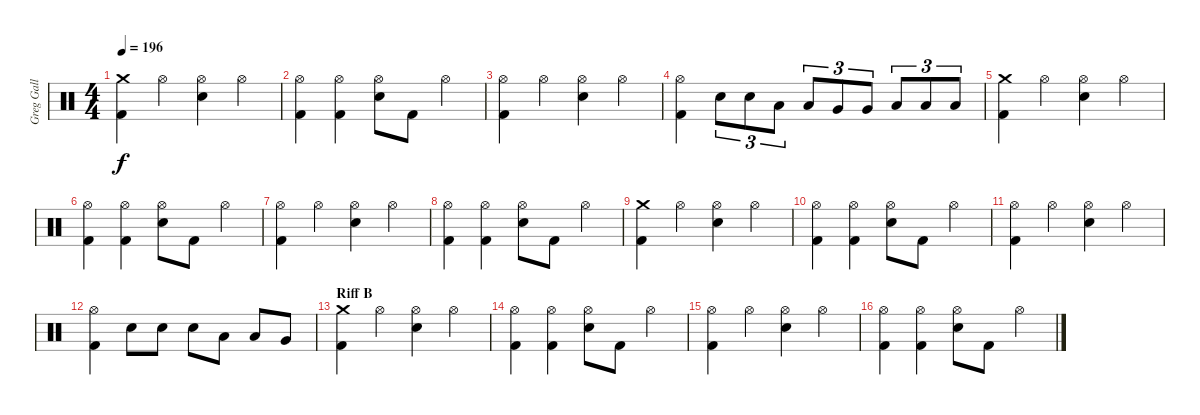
\track ("Greg Gall" "Greg Gall") {instrument percussion}
\staff {score}
\articulation defaults
\ts (4 4)
\tempo 196
\clef neutral
\ks c
("Crash medium (hit)" "Kick (hit) 2").4{dy f} "Hi-Hat (open)".4 ("Hi-Hat (open)" "Electric Snare (hit)").4 "Hi-Hat (open)".4 |
("Hi-Hat (open)" "Kick (hit) 2").4 ("Hi-Hat (open)" "Kick (hit) 2").4 ("Hi-Hat (open)" "Electric Snare (hit)").8 "Kick (hit) 2".8 "Hi-Hat (open)".4 |
("Hi-Hat (open)" "Kick (hit) 2").4 "Hi-Hat (open)".4 ("Hi-Hat (open)" "Electric Snare (hit)").4 "Hi-Hat (open)".4 |
("Hi-Hat (open)" "Kick (hit) 2").4 "Electric Snare (hit)".8{tu (3 2)} "Electric Snare (hit)".8{tu (3 2)} "Low Tom (hit)".8{tu (3 2)} "Low Tom (hit)".8{tu (3 2)} "Very Low Tom (hit)".8{tu (3 2)} "Very Low Tom (hit)".8{tu (3 2)} "Low Floor Tom (hit)".8{tu (3 2)} "Low Floor Tom (hit)".8{tu (3 2)} "Low Floor Tom (hit)".8{tu (3 2)} |
("Crash medium (hit)" "Kick (hit) 2").4 "Hi-Hat (open)".4 ("Hi-Hat (open)" "Electric Snare (hit)").4 "Hi-Hat (open)".4 |
("Hi-Hat (open)" "Kick (hit) 2").4 ("Hi-Hat (open)" "Kick (hit) 2").4 ("Hi-Hat (open)" "Electric Snare (hit)").8 "Kick (hit) 2".8 "Hi-Hat (open)".4 |
("Hi-Hat (open)" "Kick (hit) 2").4 "Hi-Hat (open)".4 ("Hi-Hat (open)" "Electric Snare (hit)").4 "Hi-Hat (open)".4 |
("Hi-Hat (open)" "Kick (hit) 2").4 ("Hi-Hat (open)" "Kick (hit) 2").4 ("Hi-Hat (open)" "Electric Snare (hit)").8 "Kick (hit) 2".8 "Hi-Hat (open)".4 |
("Crash medium (hit)" "Kick (hit) 2").4 "Hi-Hat (open)".4 ("Hi-Hat (open)" "Electric Snare (hit)").4 "Hi-Hat (open)".4 |
("Hi-Hat (open)" "Kick (hit) 2").4 ("Hi-Hat (open)" "Kick (hit) 2").4 ("Hi-Hat (open)" "Electric Snare (hit)").8 "Kick (hit) 2".8 "Hi-Hat (open)".4 |
("Hi-Hat (open)" "Kick (hit) 2").4 "Hi-Hat (open)".4 ("Hi-Hat (open)" "Electric Snare (hit)").4 "Hi-Hat (open)".4 |
("Hi-Hat (open)" "Kick (hit) 2").4 "Electric Snare (hit)".8 "Electric Snare (hit)".8 "Electric Snare (hit)".8 "Low Tom (hit)".8 "Low Tom (hit)".8 "Very Low Tom (hit)".8 |
\section ("" "Riff B")
("Crash medium (hit)" "Kick (hit) 2").4 "Hi-Hat (open)".4 ("Hi-Hat (open)" "Electric Snare (hit)").4 "Hi-Hat (open)".4 |
("Hi-Hat (open)" "Kick (hit) 2").4 ("Hi-Hat (open)" "Kick (hit) 2").4 ("Hi-Hat (open)" "Electric Snare (hit)").8 "Kick (hit) 2".8 "Hi-Hat (open)".4 |
("Hi-Hat (open)" "Kick (hit) 2").4 "Hi-Hat (open)".4 ("Hi-Hat (open)" "Electric Snare (hit)").4 "Hi-Hat (open)".4 |
("Hi-Hat (open)" "Kick (hit) 2").4 ("Hi-Hat (open)" "Kick (hit) 2").4 ("Hi-Hat (open)" "Electric Snare (hit)").8 "Kick (hit) 2".8 "Hi-Hat (open)".4
